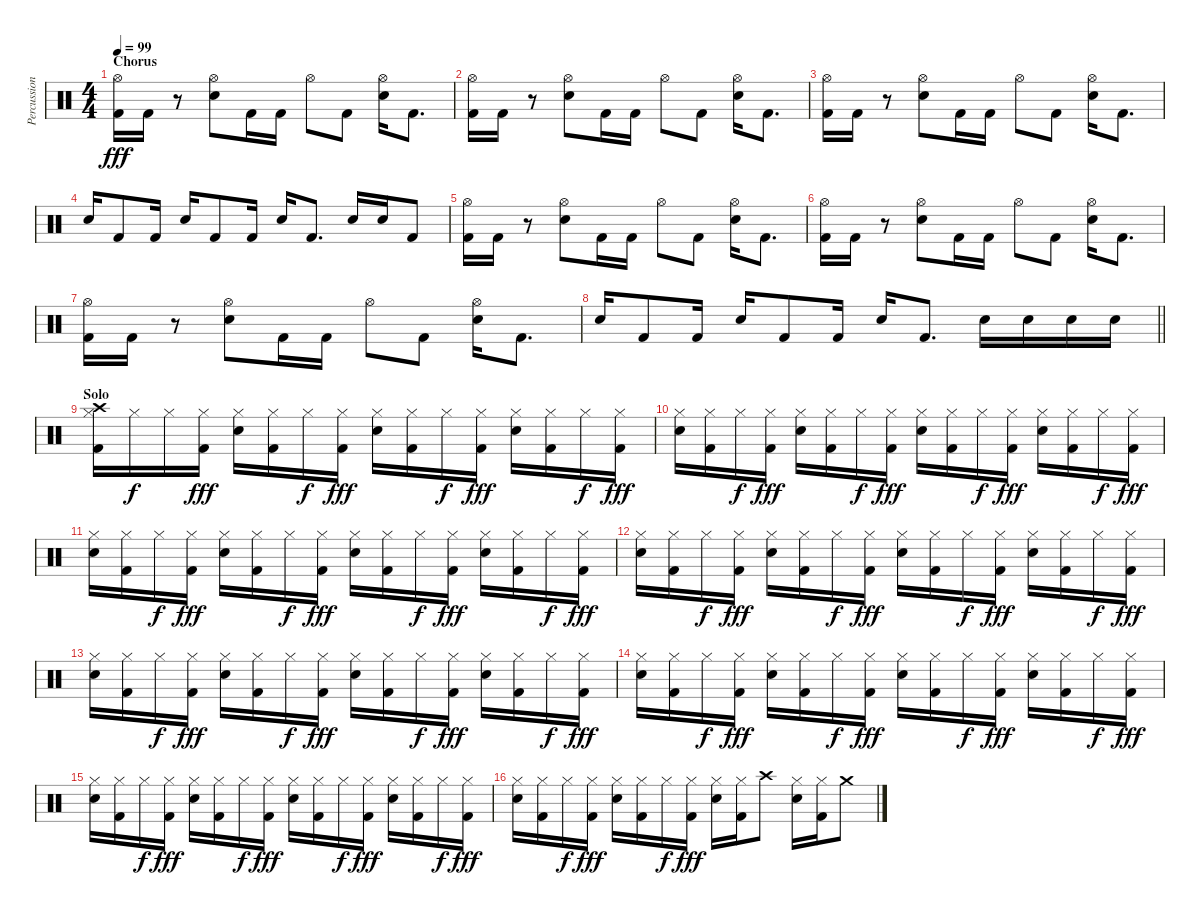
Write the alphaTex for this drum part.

\track ("Percussion" "Percussion") {instrument percussion}
\staff {score}
\articulation defaults
\ts (4 4)
\section ("" "Chorus")
\tempo 99
\clef neutral
\ks c
("Kick (hit) 2" "Hi-Hat (open)").16{dy fff} "Kick (hit) 2".16 r.8 ("Snare (hit) 2" "Hi-Hat (open)").8 "Kick (hit) 2".16 "Kick (hit) 2".16 "Hi-Hat (open)".8 "Kick (hit) 2".8 ("Snare (hit) 2" "Hi-Hat (open)").16 "Kick (hit) 2".8{d} |
("Kick (hit) 2" "Hi-Hat (open)").16 "Kick (hit) 2".16 r.8 ("Snare (hit) 2" "Hi-Hat (open)").8 "Kick (hit) 2".16 "Kick (hit) 2".16 "Hi-Hat (open)".8 "Kick (hit) 2".8 ("Snare (hit) 2" "Hi-Hat (open)").16 "Kick (hit) 2".8{d} |
("Kick (hit) 2" "Hi-Hat (open)").16 "Kick (hit) 2".16 r.8 ("Snare (hit) 2" "Hi-Hat (open)").8 "Kick (hit) 2".16 "Kick (hit) 2".16 "Hi-Hat (open)".8 "Kick (hit) 2".8 ("Snare (hit) 2" "Hi-Hat (open)").16 "Kick (hit) 2".8{d} |
"Snare (hit) 2".16 "Kick (hit) 2".8 "Kick (hit) 2".16 "Snare (hit) 2".16 "Kick (hit) 2".8 "Kick (hit) 2".16 "Snare (hit) 2".16 "Kick (hit) 2".8{d} "Snare (hit) 2".16 "Snare (hit) 2".16 "Kick (hit) 2".8 |
("Kick (hit) 2" "Hi-Hat (open)").16 "Kick (hit) 2".16 r.8 ("Snare (hit) 2" "Hi-Hat (open)").8 "Kick (hit) 2".16 "Kick (hit) 2".16 "Hi-Hat (open)".8 "Kick (hit) 2".8 ("Snare (hit) 2" "Hi-Hat (open)").16 "Kick (hit) 2".8{d} |
("Kick (hit) 2" "Hi-Hat (open)").16 "Kick (hit) 2".16 r.8 ("Snare (hit) 2" "Hi-Hat (open)").8 "Kick (hit) 2".16 "Kick (hit) 2".16 "Hi-Hat (open)".8 "Kick (hit) 2".8 ("Snare (hit) 2" "Hi-Hat (open)").16 "Kick (hit) 2".8{d} |
("Kick (hit) 2" "Hi-Hat (open)").16 "Kick (hit) 2".16 r.8 ("Snare (hit) 2" "Hi-Hat (open)").8 "Kick (hit) 2".16 "Kick (hit) 2".16 "Hi-Hat (open)".8 "Kick (hit) 2".8 ("Snare (hit) 2" "Hi-Hat (open)").16 "Kick (hit) 2".8{d} |
\barLineRight lightlight "Snare (hit) 2".16 "Kick (hit) 2".8 "Kick (hit) 2".16 "Snare (hit) 2".16 "Kick (hit) 2".8 "Kick (hit) 2".16 "Snare (hit) 2".16 "Kick (hit) 2".8{d} "Snare (hit) 2".16 "Snare (hit) 2".16 "Snare (hit) 2".16 "Snare (hit) 2".16
|
\section ("" "Solo")
("Crash high (hit)" "Kick (hit) 2" "Hi-Hat (closed)").16 "Hi-Hat (closed)".16{dy f} "Hi-Hat (closed)".16 ("Kick (hit) 2" "Hi-Hat (closed)").16{dy fff} ("Snare (hit) 2" "Hi-Hat (closed)").16 ("Kick (hit) 2" "Hi-Hat (closed)").16 "Hi-Hat (closed)".16{dy f} ("Kick (hit) 2" "Hi-Hat (closed)").16{dy fff} ("Snare (hit) 2" "Hi-Hat (closed)").16 ("Kick (hit) 2" "Hi-Hat (closed)").16 "Hi-Hat (closed)".16{dy f} ("Kick (hit) 2" "Hi-Hat (closed)").16{dy fff} ("Snare (hit) 2" "Hi-Hat (closed)").16 ("Kick (hit) 2" "Hi-Hat (closed)").16 "Hi-Hat (closed)".16{dy f} ("Kick (hit) 2" "Hi-Hat (closed)").16{dy fff} |
("Snare (hit) 2" "Hi-Hat (closed)").16 ("Kick (hit) 2" "Hi-Hat (closed)").16 "Hi-Hat (closed)".16{dy f} ("Kick (hit) 2" "Hi-Hat (closed)").16{dy fff} ("Snare (hit) 2" "Hi-Hat (closed)").16 ("Kick (hit) 2" "Hi-Hat (closed)").16 "Hi-Hat (closed)".16{dy f} ("Kick (hit) 2" "Hi-Hat (closed)").16{dy fff} ("Snare (hit) 2" "Hi-Hat (closed)").16 ("Kick (hit) 2" "Hi-Hat (closed)").16 "Hi-Hat (closed)".16{dy f} ("Kick (hit) 2" "Hi-Hat (closed)").16{dy fff} ("Snare (hit) 2" "Hi-Hat (closed)").16 ("Kick (hit) 2" "Hi-Hat (closed)").16 "Hi-Hat (closed)".16{dy f} ("Kick (hit) 2" "Hi-Hat (closed)").16{dy fff} |
("Snare (hit) 2" "Hi-Hat (closed)").16 ("Kick (hit) 2" "Hi-Hat (closed)").16 "Hi-Hat (closed)".16{dy f} ("Kick (hit) 2" "Hi-Hat (closed)").16{dy fff} ("Snare (hit) 2" "Hi-Hat (closed)").16 ("Kick (hit) 2" "Hi-Hat (closed)").16 "Hi-Hat (closed)".16{dy f} ("Kick (hit) 2" "Hi-Hat (closed)").16{dy fff} ("Snare (hit) 2" "Hi-Hat (closed)").16 ("Kick (hit) 2" "Hi-Hat (closed)").16 "Hi-Hat (closed)".16{dy f} ("Kick (hit) 2" "Hi-Hat (closed)").16{dy fff} ("Snare (hit) 2" "Hi-Hat (closed)").16 ("Kick (hit) 2" "Hi-Hat (closed)").16 "Hi-Hat (closed)".16{dy f} ("Kick (hit) 2" "Hi-Hat (closed)").16{dy fff} |
("Snare (hit) 2" "Hi-Hat (closed)").16 ("Kick (hit) 2" "Hi-Hat (closed)").16 "Hi-Hat (closed)".16{dy f} ("Kick (hit) 2" "Hi-Hat (closed)").16{dy fff} ("Snare (hit) 2" "Hi-Hat (closed)").16 ("Kick (hit) 2" "Hi-Hat (closed)").16 "Hi-Hat (closed)".16{dy f} ("Kick (hit) 2" "Hi-Hat (closed)").16{dy fff} ("Snare (hit) 2" "Hi-Hat (closed)").16 ("Kick (hit) 2" "Hi-Hat (closed)").16 "Hi-Hat (closed)".16{dy f} ("Kick (hit) 2" "Hi-Hat (closed)").16{dy fff} ("Snare (hit) 2" "Hi-Hat (closed)").16 ("Kick (hit) 2" "Hi-Hat (closed)").16 "Hi-Hat (closed)".16{dy f} ("Kick (hit) 2" "Hi-Hat (closed)").16{dy fff} |
("Snare (hit) 2" "Hi-Hat (closed)").16 ("Kick (hit) 2" "Hi-Hat (closed)").16 "Hi-Hat (closed)".16{dy f} ("Kick (hit) 2" "Hi-Hat (closed)").16{dy fff} ("Snare (hit) 2" "Hi-Hat (closed)").16 ("Kick (hit) 2" "Hi-Hat (closed)").16 "Hi-Hat (closed)".16{dy f} ("Kick (hit) 2" "Hi-Hat (closed)").16{dy fff} ("Snare (hit) 2" "Hi-Hat (closed)").16 ("Kick (hit) 2" "Hi-Hat (closed)").16 "Hi-Hat (closed)".16{dy f} ("Kick (hit) 2" "Hi-Hat (closed)").16{dy fff} ("Snare (hit) 2" "Hi-Hat (closed)").16 ("Kick (hit) 2" "Hi-Hat (closed)").16 "Hi-Hat (closed)".16{dy f} ("Kick (hit) 2" "Hi-Hat (closed)").16{dy fff} |
("Snare (hit) 2" "Hi-Hat (closed)").16 ("Kick (hit) 2" "Hi-Hat (closed)").16 "Hi-Hat (closed)".16{dy f} ("Kick (hit) 2" "Hi-Hat (closed)").16{dy fff} ("Snare (hit) 2" "Hi-Hat (closed)").16 ("Kick (hit) 2" "Hi-Hat (closed)").16 "Hi-Hat (closed)".16{dy f} ("Kick (hit) 2" "Hi-Hat (closed)").16{dy fff} ("Snare (hit) 2" "Hi-Hat (closed)").16 ("Kick (hit) 2" "Hi-Hat (closed)").16 "Hi-Hat (closed)".16{dy f} ("Kick (hit) 2" "Hi-Hat (closed)").16{dy fff} ("Snare (hit) 2" "Hi-Hat (closed)").16 ("Kick (hit) 2" "Hi-Hat (closed)").16 "Hi-Hat (closed)".16{dy f} ("Kick (hit) 2" "Hi-Hat (closed)").16{dy fff} |
("Snare (hit) 2" "Hi-Hat (closed)").16 ("Kick (hit) 2" "Hi-Hat (closed)").16 "Hi-Hat (closed)".16{dy f} ("Kick (hit) 2" "Hi-Hat (closed)").16{dy fff} ("Snare (hit) 2" "Hi-Hat (closed)").16 ("Kick (hit) 2" "Hi-Hat (closed)").16 "Hi-Hat (closed)".16{dy f} ("Kick (hit) 2" "Hi-Hat (closed)").16{dy fff} ("Snare (hit) 2" "Hi-Hat (closed)").16 ("Kick (hit) 2" "Hi-Hat (closed)").16 "Hi-Hat (closed)".16{dy f} ("Kick (hit) 2" "Hi-Hat (closed)").16{dy fff} ("Snare (hit) 2" "Hi-Hat (closed)").16 ("Kick (hit) 2" "Hi-Hat (closed)").16 "Hi-Hat (closed)".16{dy f} ("Kick (hit) 2" "Hi-Hat (closed)").16{dy fff} |
("Snare (hit) 2" "Hi-Hat (closed)").16 ("Kick (hit) 2" "Hi-Hat (closed)").16 "Hi-Hat (closed)".16{dy f} ("Kick (hit) 2" "Hi-Hat (closed)").16{dy fff} ("Snare (hit) 2" "Hi-Hat (closed)").16 ("Kick (hit) 2" "Hi-Hat (closed)").16 "Hi-Hat (closed)".16{dy f} ("Kick (hit) 2" "Hi-Hat (closed)").16{dy fff} ("Snare (hit) 2" "Hi-Hat (closed)").16 ("Kick (hit) 2" "Hi-Hat (closed)").16 "Crash high (hit)".8 ("Snare (hit) 2" "Hi-Hat (closed)").16 ("Kick (hit) 2" "Hi-Hat (closed)").16 "Crash medium (hit)".8
